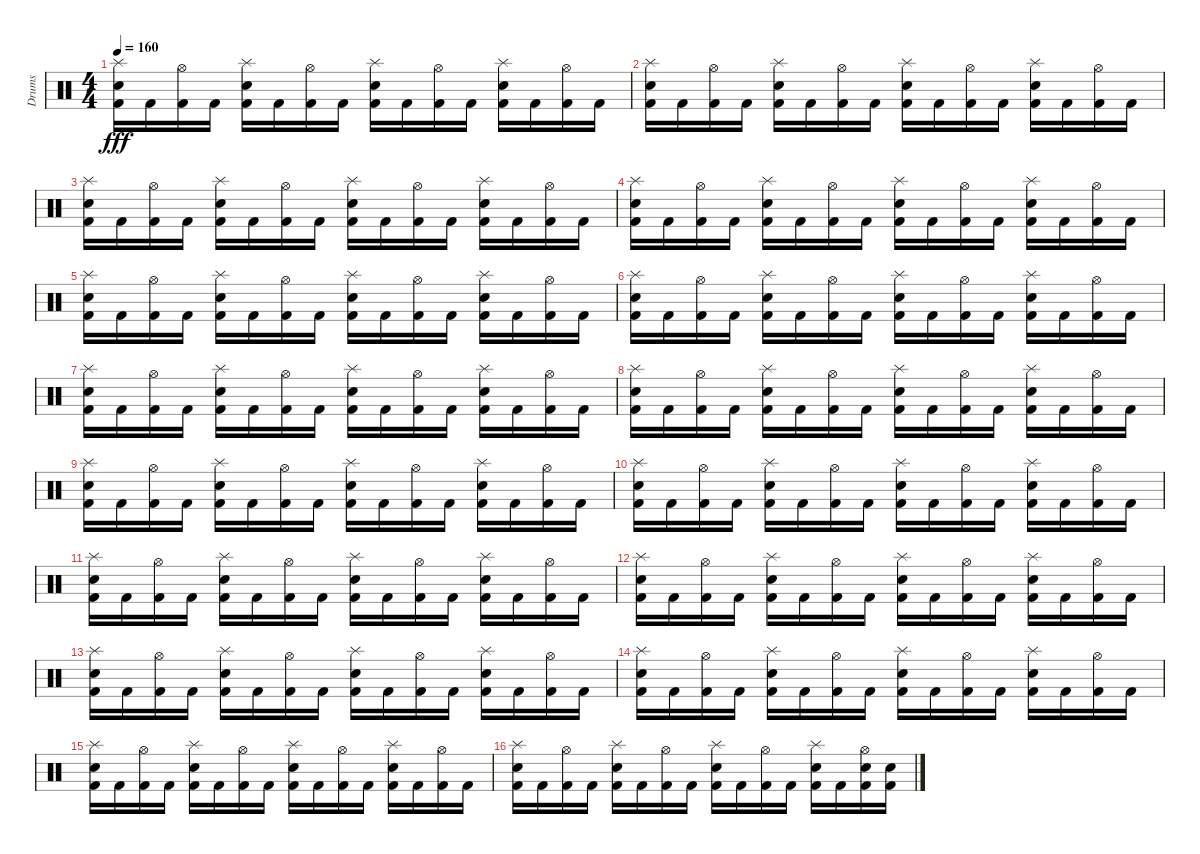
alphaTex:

\track ("Drums" "Drums") {instrument percussion}
\staff {score}
\articulation defaults
\ts (4 4)
\tempo 160
\clef neutral
\ks c
("Electric Snare (hit)" "Kick (hit) 2" "Splash (hit)").16{dy fff} "Kick (hit) 2".16 ("Kick (hit) 2" "Hi-Hat (open)").16 "Kick (hit) 2".16 ("Electric Snare (hit)" "Kick (hit) 2" "Splash (hit)").16 "Kick (hit) 2".16 ("Kick (hit) 2" "Hi-Hat (open)").16 "Kick (hit) 2".16 ("Electric Snare (hit)" "Kick (hit) 2" "Splash (hit)").16 "Kick (hit) 2".16 ("Kick (hit) 2" "Hi-Hat (open)").16 "Kick (hit) 2".16 ("Electric Snare (hit)" "Kick (hit) 2" "Splash (hit)").16 "Kick (hit) 2".16 ("Kick (hit) 2" "Hi-Hat (open)").16 "Kick (hit) 2".16 |
("Electric Snare (hit)" "Kick (hit) 2" "Splash (hit)").16 "Kick (hit) 2".16 ("Kick (hit) 2" "Hi-Hat (open)").16 "Kick (hit) 2".16 ("Electric Snare (hit)" "Kick (hit) 2" "Splash (hit)").16 "Kick (hit) 2".16 ("Kick (hit) 2" "Hi-Hat (open)").16 "Kick (hit) 2".16 ("Electric Snare (hit)" "Kick (hit) 2" "Splash (hit)").16 "Kick (hit) 2".16 ("Kick (hit) 2" "Hi-Hat (open)").16 "Kick (hit) 2".16 ("Electric Snare (hit)" "Kick (hit) 2" "Splash (hit)").16 "Kick (hit) 2".16 ("Kick (hit) 2" "Hi-Hat (open)").16 "Kick (hit) 2".16 |
("Electric Snare (hit)" "Kick (hit) 2" "Splash (hit)").16 "Kick (hit) 2".16 ("Kick (hit) 2" "Hi-Hat (open)").16 "Kick (hit) 2".16 ("Electric Snare (hit)" "Kick (hit) 2" "Splash (hit)").16 "Kick (hit) 2".16 ("Kick (hit) 2" "Hi-Hat (open)").16 "Kick (hit) 2".16 ("Electric Snare (hit)" "Kick (hit) 2" "Splash (hit)").16 "Kick (hit) 2".16 ("Kick (hit) 2" "Hi-Hat (open)").16 "Kick (hit) 2".16 ("Electric Snare (hit)" "Kick (hit) 2" "Splash (hit)").16 "Kick (hit) 2".16 ("Kick (hit) 2" "Hi-Hat (open)").16 "Kick (hit) 2".16 |
("Electric Snare (hit)" "Kick (hit) 2" "Splash (hit)").16 "Kick (hit) 2".16 ("Kick (hit) 2" "Hi-Hat (open)").16 "Kick (hit) 2".16 ("Electric Snare (hit)" "Kick (hit) 2" "Splash (hit)").16 "Kick (hit) 2".16 ("Kick (hit) 2" "Hi-Hat (open)").16 "Kick (hit) 2".16 ("Electric Snare (hit)" "Kick (hit) 2" "Splash (hit)").16 "Kick (hit) 2".16 ("Kick (hit) 2" "Hi-Hat (open)").16 "Kick (hit) 2".16 ("Electric Snare (hit)" "Kick (hit) 2" "Splash (hit)").16 "Kick (hit) 2".16 ("Kick (hit) 2" "Hi-Hat (open)").16 "Kick (hit) 2".16 |
("Electric Snare (hit)" "Kick (hit) 2" "Splash (hit)").16 "Kick (hit) 2".16 ("Kick (hit) 2" "Hi-Hat (open)").16 "Kick (hit) 2".16 ("Electric Snare (hit)" "Kick (hit) 2" "Splash (hit)").16 "Kick (hit) 2".16 ("Kick (hit) 2" "Hi-Hat (open)").16 "Kick (hit) 2".16 ("Electric Snare (hit)" "Kick (hit) 2" "Splash (hit)").16 "Kick (hit) 2".16 ("Kick (hit) 2" "Hi-Hat (open)").16 "Kick (hit) 2".16 ("Electric Snare (hit)" "Kick (hit) 2" "Splash (hit)").16 "Kick (hit) 2".16 ("Kick (hit) 2" "Hi-Hat (open)").16 "Kick (hit) 2".16 |
("Electric Snare (hit)" "Kick (hit) 2" "Splash (hit)").16 "Kick (hit) 2".16 ("Kick (hit) 2" "Hi-Hat (open)").16 "Kick (hit) 2".16 ("Electric Snare (hit)" "Kick (hit) 2" "Splash (hit)").16 "Kick (hit) 2".16 ("Kick (hit) 2" "Hi-Hat (open)").16 "Kick (hit) 2".16 ("Electric Snare (hit)" "Kick (hit) 2" "Splash (hit)").16 "Kick (hit) 2".16 ("Kick (hit) 2" "Hi-Hat (open)").16 "Kick (hit) 2".16 ("Electric Snare (hit)" "Kick (hit) 2" "Splash (hit)").16 "Kick (hit) 2".16 ("Kick (hit) 2" "Hi-Hat (open)").16 "Kick (hit) 2".16 |
("Electric Snare (hit)" "Kick (hit) 2" "Splash (hit)").16 "Kick (hit) 2".16 ("Kick (hit) 2" "Hi-Hat (open)").16 "Kick (hit) 2".16 ("Electric Snare (hit)" "Kick (hit) 2" "Splash (hit)").16 "Kick (hit) 2".16 ("Kick (hit) 2" "Hi-Hat (open)").16 "Kick (hit) 2".16 ("Electric Snare (hit)" "Kick (hit) 2" "Splash (hit)").16 "Kick (hit) 2".16 ("Kick (hit) 2" "Hi-Hat (open)").16 "Kick (hit) 2".16 ("Electric Snare (hit)" "Kick (hit) 2" "Splash (hit)").16 "Kick (hit) 2".16 ("Kick (hit) 2" "Hi-Hat (open)").16 "Kick (hit) 2".16 |
("Electric Snare (hit)" "Kick (hit) 2" "Splash (hit)").16 "Kick (hit) 2".16 ("Kick (hit) 2" "Hi-Hat (open)").16 "Kick (hit) 2".16 ("Electric Snare (hit)" "Kick (hit) 2" "Splash (hit)").16 "Kick (hit) 2".16 ("Kick (hit) 2" "Hi-Hat (open)").16 "Kick (hit) 2".16 ("Electric Snare (hit)" "Kick (hit) 2" "Splash (hit)").16 "Kick (hit) 2".16 ("Kick (hit) 2" "Hi-Hat (open)").16 "Kick (hit) 2".16 ("Electric Snare (hit)" "Kick (hit) 2" "Splash (hit)").16 "Kick (hit) 2".16 ("Kick (hit) 2" "Hi-Hat (open)").16 "Kick (hit) 2".16 |
("Electric Snare (hit)" "Kick (hit) 2" "Splash (hit)").16 "Kick (hit) 2".16 ("Kick (hit) 2" "Hi-Hat (open)").16 "Kick (hit) 2".16 ("Electric Snare (hit)" "Kick (hit) 2" "Splash (hit)").16 "Kick (hit) 2".16 ("Kick (hit) 2" "Hi-Hat (open)").16 "Kick (hit) 2".16 ("Electric Snare (hit)" "Kick (hit) 2" "Splash (hit)").16 "Kick (hit) 2".16 ("Kick (hit) 2" "Hi-Hat (open)").16 "Kick (hit) 2".16 ("Electric Snare (hit)" "Kick (hit) 2" "Splash (hit)").16 "Kick (hit) 2".16 ("Kick (hit) 2" "Hi-Hat (open)").16 "Kick (hit) 2".16 |
("Electric Snare (hit)" "Kick (hit) 2" "Splash (hit)").16 "Kick (hit) 2".16 ("Kick (hit) 2" "Hi-Hat (open)").16 "Kick (hit) 2".16 ("Electric Snare (hit)" "Kick (hit) 2" "Splash (hit)").16 "Kick (hit) 2".16 ("Kick (hit) 2" "Hi-Hat (open)").16 "Kick (hit) 2".16 ("Electric Snare (hit)" "Kick (hit) 2" "Splash (hit)").16 "Kick (hit) 2".16 ("Kick (hit) 2" "Hi-Hat (open)").16 "Kick (hit) 2".16 ("Electric Snare (hit)" "Kick (hit) 2" "Splash (hit)").16 "Kick (hit) 2".16 ("Kick (hit) 2" "Hi-Hat (open)").16 "Kick (hit) 2".16 |
("Electric Snare (hit)" "Kick (hit) 2" "Splash (hit)").16 "Kick (hit) 2".16 ("Kick (hit) 2" "Hi-Hat (open)").16 "Kick (hit) 2".16 ("Electric Snare (hit)" "Kick (hit) 2" "Splash (hit)").16 "Kick (hit) 2".16 ("Kick (hit) 2" "Hi-Hat (open)").16 "Kick (hit) 2".16 ("Electric Snare (hit)" "Kick (hit) 2" "Splash (hit)").16 "Kick (hit) 2".16 ("Kick (hit) 2" "Hi-Hat (open)").16 "Kick (hit) 2".16 ("Electric Snare (hit)" "Kick (hit) 2" "Splash (hit)").16 "Kick (hit) 2".16 ("Kick (hit) 2" "Hi-Hat (open)").16 "Kick (hit) 2".16 |
("Electric Snare (hit)" "Kick (hit) 2" "Splash (hit)").16 "Kick (hit) 2".16 ("Kick (hit) 2" "Hi-Hat (open)").16 "Kick (hit) 2".16 ("Electric Snare (hit)" "Kick (hit) 2" "Splash (hit)").16 "Kick (hit) 2".16 ("Kick (hit) 2" "Hi-Hat (open)").16 "Kick (hit) 2".16 ("Electric Snare (hit)" "Kick (hit) 2" "Splash (hit)").16 "Kick (hit) 2".16 ("Kick (hit) 2" "Hi-Hat (open)").16 "Kick (hit) 2".16 ("Electric Snare (hit)" "Kick (hit) 2" "Splash (hit)").16 "Kick (hit) 2".16 ("Kick (hit) 2" "Hi-Hat (open)").16 "Kick (hit) 2".16 |
("Electric Snare (hit)" "Kick (hit) 2" "Splash (hit)").16 "Kick (hit) 2".16 ("Kick (hit) 2" "Hi-Hat (open)").16 "Kick (hit) 2".16 ("Electric Snare (hit)" "Kick (hit) 2" "Splash (hit)").16 "Kick (hit) 2".16 ("Kick (hit) 2" "Hi-Hat (open)").16 "Kick (hit) 2".16 ("Electric Snare (hit)" "Kick (hit) 2" "Splash (hit)").16 "Kick (hit) 2".16 ("Kick (hit) 2" "Hi-Hat (open)").16 "Kick (hit) 2".16 ("Electric Snare (hit)" "Kick (hit) 2" "Splash (hit)").16 "Kick (hit) 2".16 ("Kick (hit) 2" "Hi-Hat (open)").16 "Kick (hit) 2".16 |
("Electric Snare (hit)" "Kick (hit) 2" "Splash (hit)").16 "Kick (hit) 2".16 ("Kick (hit) 2" "Hi-Hat (open)").16 "Kick (hit) 2".16 ("Electric Snare (hit)" "Kick (hit) 2" "Splash (hit)").16 "Kick (hit) 2".16 ("Kick (hit) 2" "Hi-Hat (open)").16 "Kick (hit) 2".16 ("Electric Snare (hit)" "Kick (hit) 2" "Splash (hit)").16 "Kick (hit) 2".16 ("Kick (hit) 2" "Hi-Hat (open)").16 "Kick (hit) 2".16 ("Electric Snare (hit)" "Kick (hit) 2" "Splash (hit)").16 "Kick (hit) 2".16 ("Kick (hit) 2" "Hi-Hat (open)").16 "Kick (hit) 2".16 |
("Electric Snare (hit)" "Kick (hit) 2" "Splash (hit)").16 "Kick (hit) 2".16 ("Kick (hit) 2" "Hi-Hat (open)").16 "Kick (hit) 2".16 ("Electric Snare (hit)" "Kick (hit) 2" "Splash (hit)").16 "Kick (hit) 2".16 ("Kick (hit) 2" "Hi-Hat (open)").16 "Kick (hit) 2".16 ("Electric Snare (hit)" "Kick (hit) 2" "Splash (hit)").16 "Kick (hit) 2".16 ("Kick (hit) 2" "Hi-Hat (open)").16 "Kick (hit) 2".16 ("Electric Snare (hit)" "Kick (hit) 2" "Splash (hit)").16 "Kick (hit) 2".16 ("Kick (hit) 2" "Hi-Hat (open)").16 "Kick (hit) 2".16 |
("Electric Snare (hit)" "Kick (hit) 2" "Splash (hit)").16 "Kick (hit) 2".16 ("Kick (hit) 2" "Hi-Hat (open)").16 "Kick (hit) 2".16 ("Electric Snare (hit)" "Kick (hit) 2" "Splash (hit)").16 "Kick (hit) 2".16 ("Kick (hit) 2" "Hi-Hat (open)").16 "Kick (hit) 2".16 ("Electric Snare (hit)" "Kick (hit) 2" "Splash (hit)").16 "Kick (hit) 2".16 ("Kick (hit) 2" "Hi-Hat (open)").16 "Kick (hit) 2".16 ("Electric Snare (hit)" "Kick (hit) 2" "Splash (hit)").16 "Kick (hit) 2".16 ("Electric Snare (hit)" "Kick (hit) 2" "Hi-Hat (open)").16 ("Electric Snare (hit)" "Kick (hit) 2").16
